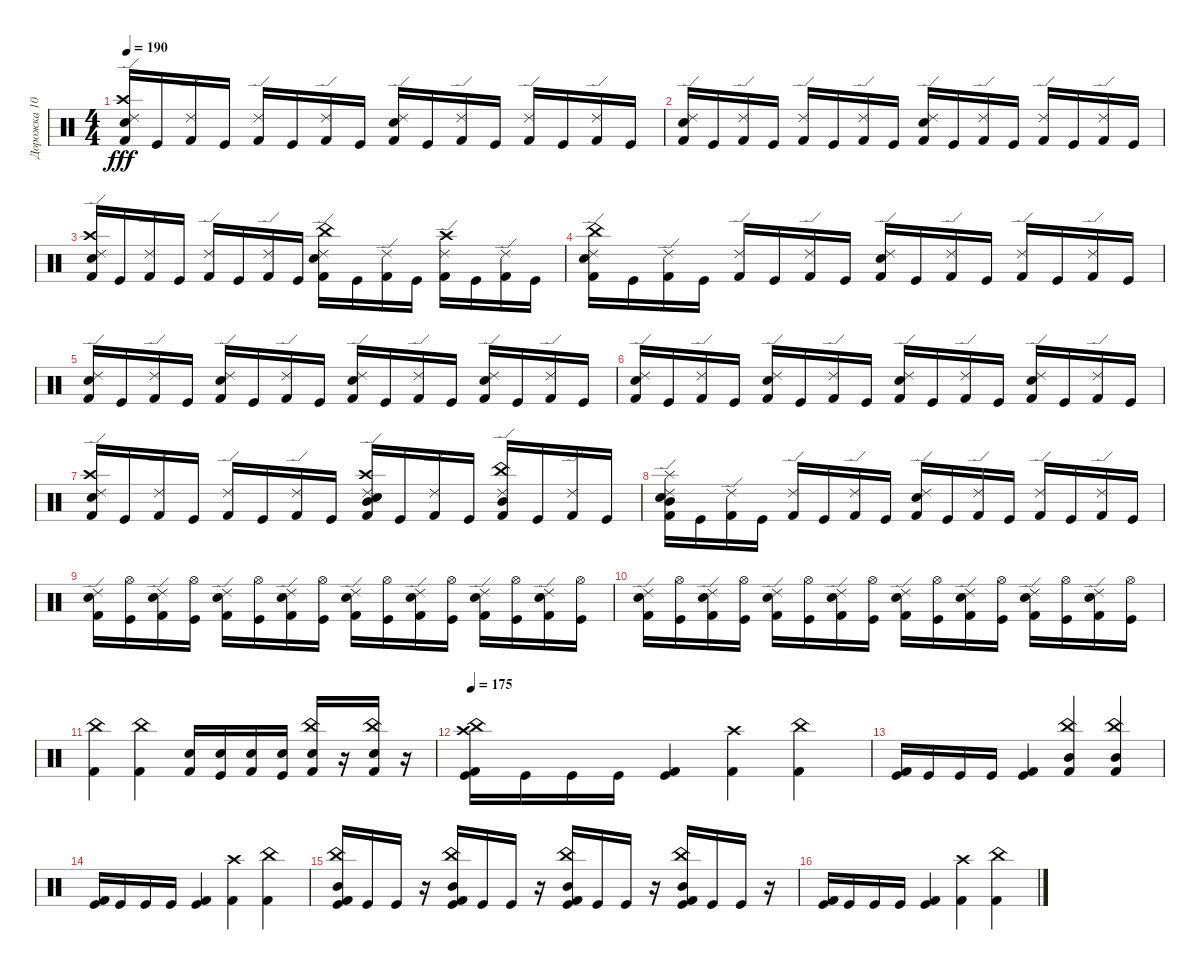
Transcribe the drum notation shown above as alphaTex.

\track ("Дорожка 10" "Дорожка 10") {instrument percussion}
\staff {score}
\articulation defaults
\ts (4 4)
\tempo 190
\clef neutral
\ks c
("Ride (edge) 2" "Kick (hit) 2" "Crash high (hit)" "Electric Snare (hit)").16{dy fff} "Kick (hit)".16 ("Ride (edge) 2" "Kick (hit) 2").16 "Kick (hit)".16 ("Ride (edge) 2" "Kick (hit) 2").16 "Kick (hit)".16 ("Kick (hit) 2" "Ride (edge) 2").16 "Kick (hit)".16 ("Kick (hit) 2" "Electric Snare (hit)" "Ride (edge) 2").16 "Kick (hit)".16 ("Ride (edge) 2" "Kick (hit) 2").16 "Kick (hit)".16 ("Kick (hit) 2" "Ride (edge) 2").16 "Kick (hit)".16 ("Ride (edge) 2" "Kick (hit) 2").16 "Kick (hit)".16 |
("Kick (hit) 2" "Electric Snare (hit)" "Ride (edge) 2").16 "Kick (hit)".16 ("Ride (edge) 2" "Kick (hit) 2").16 "Kick (hit)".16 ("Kick (hit) 2" "Ride (edge) 2").16 "Kick (hit)".16 ("Kick (hit) 2" "Ride (edge) 2").16 "Kick (hit)".16 ("Kick (hit) 2" "Electric Snare (hit)" "Ride (edge) 2").16 "Kick (hit)".16 ("Ride (edge) 2" "Kick (hit) 2").16 "Kick (hit)".16 ("Ride (edge) 2" "Kick (hit) 2").16 "Kick (hit)".16 ("Ride (edge) 2" "Kick (hit) 2").16 "Kick (hit)".16 |
("Kick (hit) 2" "Electric Snare (hit)" "Crash high (hit)" "Ride (edge) 2").16 "Kick (hit)".16 ("Ride (edge) 2" "Kick (hit) 2").16 "Kick (hit)".16 ("Ride (edge) 2" "Kick (hit) 2").16 "Kick (hit)".16 ("Kick (hit) 2" "Ride (edge) 2").16 "Kick (hit)".16 ("Ride (edge) 2" "Kick (hit) 2" "Electric Snare (hit)" "China (hit)").16 "Kick (hit)".16 ("Ride (edge) 2" "Kick (hit) 2").16 "Kick (hit)".16 ("Kick (hit) 2" "Ride (edge) 2" "Crash high (hit)").16 "Kick (hit)".16 ("Ride (edge) 2" "Kick (hit) 2").16 "Kick (hit)".16 |
("Electric Snare (hit)" "Kick (hit) 2" "Ride (edge) 2" "China (hit)").16 "Kick (hit)".16 ("Kick (hit) 2" "Ride (edge) 2").16 "Kick (hit)".16 ("Ride (edge) 2" "Kick (hit) 2").16 "Kick (hit)".16 ("Kick (hit) 2" "Ride (edge) 2").16 "Kick (hit)".16 ("Electric Snare (hit)" "Ride (edge) 2" "Kick (hit) 2").16 "Kick (hit)".16 ("Kick (hit) 2" "Ride (edge) 2").16 "Kick (hit)".16 ("Ride (edge) 2" "Kick (hit) 2").16 "Kick (hit)".16 ("Kick (hit) 2" "Ride (edge) 2").16 "Kick (hit)".16 |
("Ride (edge) 2" "Electric Snare (hit)" "Kick (hit) 2").16 "Kick (hit)".16 ("Kick (hit) 2" "Ride (edge) 2").16 "Kick (hit)".16 ("Ride (edge) 2" "Electric Snare (hit)" "Kick (hit) 2").16 "Kick (hit)".16 ("Ride (edge) 2" "Kick (hit) 2").16 "Kick (hit)".16 ("Kick (hit) 2" "Electric Snare (hit)" "Ride (edge) 2").16 "Kick (hit)".16 ("Ride (edge) 2" "Kick (hit) 2").16 "Kick (hit)".16 ("Ride (edge) 2" "Kick (hit) 2" "Electric Snare (hit)").16 "Kick (hit)".16 ("Kick (hit) 2" "Ride (edge) 2").16 "Kick (hit)".16 |
("Ride (edge) 2" "Electric Snare (hit)" "Kick (hit) 2").16 "Kick (hit)".16 ("Ride (edge) 2" "Kick (hit) 2").16 "Kick (hit)".16 ("Ride (edge) 2" "Kick (hit) 2" "Electric Snare (hit)").16 "Kick (hit)".16 ("Ride (edge) 2" "Kick (hit) 2").16 "Kick (hit)".16 ("Electric Snare (hit)" "Ride (edge) 2" "Kick (hit) 2").16 "Kick (hit)".16 ("Ride (edge) 2" "Kick (hit) 2").16 "Kick (hit)".16 ("Electric Snare (hit)" "Ride (edge) 2" "Kick (hit) 2").16 "Kick (hit)".16 ("Kick (hit) 2" "Ride (edge) 2").16 "Kick (hit)".16 |
("Ride (edge) 2" "Crash high (hit)" "Kick (hit) 2" "Electric Snare (hit)").16 "Kick (hit)".16 ("Kick (hit) 2" "Ride (edge) 2").16 "Kick (hit)".16 ("Kick (hit) 2" "Ride (edge) 2").16 "Kick (hit)".16 ("Kick (hit) 2" "Ride (edge) 2").16 "Kick (hit)".16 ("Mid Tom (hit)" "Ride (edge) 2" "Electric Snare (hit)" "Kick (hit) 2" "Crash high (hit)").16 "Kick (hit)".16 ("Kick (hit) 2" "Ride (edge) 2").16 "Kick (hit)".16 ("Mid Tom (hit)" "Ride (edge) 2" "Kick (hit) 2" "China (hit)").16 "Kick (hit)".16 ("Ride (edge) 2" "Kick (hit) 2").16 "Kick (hit)".16 |
("Mid Tom (hit)" "Kick (hit) 2" "Ride (edge) 2" "Electric Snare (hit)" "Splash (hit)").16 "Kick (hit)".16 ("Kick (hit) 2" "Ride (edge) 2").16 "Kick (hit)".16 ("Ride (edge) 2" "Kick (hit) 2").16 "Kick (hit)".16 ("Ride (edge) 2" "Kick (hit) 2").16 "Kick (hit)".16 ("Ride (edge) 2" "Kick (hit) 2" "Electric Snare (hit)").16 "Kick (hit)".16 ("Kick (hit) 2" "Ride (edge) 2").16 "Kick (hit)".16 ("Kick (hit) 2" "Ride (edge) 2").16 "Kick (hit)".16 ("Kick (hit) 2" "Ride (edge) 2").16 "Kick (hit)".16 |
("Ride (edge) 2" "Snare (hit) 2" "Kick (hit) 2").16 ("Hi-Hat (open)" "Kick (hit)").16 ("Snare (hit) 2" "Kick (hit) 2" "Ride (edge) 2").16 ("Hi-Hat (open)" "Kick (hit)").16 ("Snare (hit) 2" "Ride (edge) 2" "Kick (hit) 2").16 ("Kick (hit)" "Hi-Hat (open)").16 ("Snare (hit) 2" "Kick (hit) 2" "Ride (edge) 2").16 ("Hi-Hat (open)" "Kick (hit)").16 ("Snare (hit) 2" "Kick (hit) 2" "Ride (edge) 2").16 ("Hi-Hat (open)" "Kick (hit)").16 ("Ride (edge) 2" "Kick (hit) 2" "Snare (hit) 2").16 ("Kick (hit)" "Hi-Hat (open)").16 ("Snare (hit) 2" "Kick (hit) 2" "Ride (edge) 2").16 ("Kick (hit)" "Hi-Hat (open)").16 ("Ride (edge) 2" "Kick (hit) 2" "Snare (hit) 2").16 ("Kick (hit)" "Hi-Hat (open)").16 |
("Snare (hit) 2" "Ride (edge) 2" "Kick (hit) 2").16 ("Hi-Hat (open)" "Kick (hit)").16 ("Kick (hit) 2" "Ride (edge) 2" "Snare (hit) 2").16 ("Kick (hit)" "Hi-Hat (open)").16 ("Snare (hit) 2" "Kick (hit) 2" "Ride (edge) 2").16 ("Kick (hit)" "Hi-Hat (open)").16 ("Ride (edge) 2" "Kick (hit) 2" "Snare (hit) 2").16 ("Hi-Hat (open)" "Kick (hit)").16 ("Snare (hit) 2" "Ride (edge) 2" "Kick (hit) 2").16 ("Hi-Hat (open)" "Kick (hit)").16 ("Kick (hit) 2" "Snare (hit) 2" "Ride (edge) 2").16 ("Hi-Hat (open)" "Kick (hit)").16 ("Kick (hit) 2" "Snare (hit) 2" "Ride (edge) 2").16 ("Hi-Hat (open)" "Kick (hit)").16 ("Snare (hit) 2" "Kick (hit) 2" "Ride (edge) 2").16 ("Hi-Hat (open)" "Kick (hit)").16 |
("China (hit)" "Kick (hit) 2").4 ("China (hit)" "Kick (hit) 2").4 ("Electric Snare (hit)" "Kick (hit) 2").16 ("Kick (hit)" "Electric Snare (hit)").16 ("Electric Snare (hit)" "Kick (hit) 2").16 ("Electric Snare (hit)" "Kick (hit)").16 ("Kick (hit) 2" "Snare (hit) 2" "China (hit)").16 r.16 ("China (hit)" "Kick (hit) 2" "Snare (hit) 2").16 r.16 |
\tempo 175
("Crash high (hit)" "Kick (hit) 2" "Kick (hit)" "China (hit)").16 "Kick (hit)".16 "Kick (hit)".16 "Kick (hit)".16 ("Kick (hit) 2" "Kick (hit)").4 ("Kick (hit) 2" "Crash high (hit)").4 ("Kick (hit) 2" "China (hit)").4 |
("Kick (hit) 2" "Kick (hit)").16 "Kick (hit)".16 "Kick (hit)".16 "Kick (hit)".16 ("Kick (hit) 2" "Kick (hit)").4 ("Mid Tom (hit)" "Kick (hit) 2" "China (hit)").4 ("Mid Tom (hit)" "Kick (hit) 2" "China (hit)").4 |
("Kick (hit) 2" "Kick (hit)").16 "Kick (hit)".16 "Kick (hit)".16 "Kick (hit)".16 ("Kick (hit)" "Kick (hit) 2").4 ("Kick (hit) 2" "Crash high (hit)").4 ("China (hit)" "Kick (hit) 2").4 |
("Mid Tom (hit)" "China (hit)" "Kick (hit) 2" "Kick (hit)").16 "Kick (hit)".16 "Kick (hit)".16 r.16 ("Kick (hit) 2" "China (hit)" "Kick (hit)" "Mid Tom (hit)").16 "Kick (hit)".16 "Kick (hit)".16 r.16 ("Mid Tom (hit)" "Kick (hit) 2" "Kick (hit)" "China (hit)").16 "Kick (hit)".16 "Kick (hit)".16 r.16 ("Mid Tom (hit)" "China (hit)" "Kick (hit) 2" "Kick (hit)").16 "Kick (hit)".16 "Kick (hit)".16 r.16 |
("Kick (hit)" "Kick (hit) 2").16 "Kick (hit)".16 "Kick (hit)".16 "Kick (hit)".16 ("Kick (hit)" "Kick (hit) 2").4 ("Kick (hit) 2" "Crash high (hit)").4 ("Kick (hit) 2" "China (hit)").4
